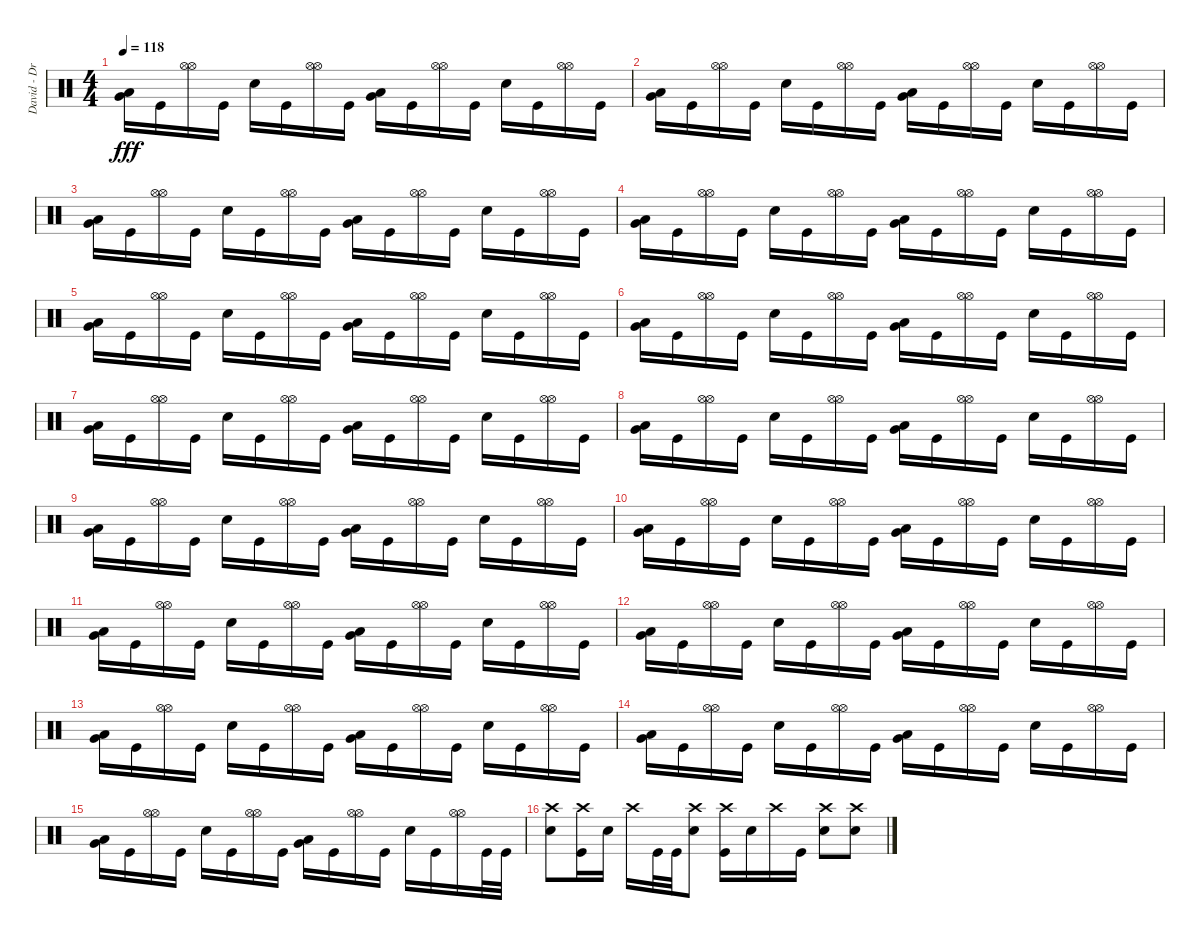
\track ("David - Drums" "David - Dr") {instrument percussion}
\staff {score}
\articulation defaults
\ts (4 4)
\tempo 118
\clef neutral
\ks c
("Low Floor Tom (hit)" "Very Low Tom (hit)").16{dy fff} "Kick (hit)".16 ("Hi-Hat (open)" "Hi-Hat (open)").16 "Kick (hit)".16 "Snare (hit) 2".16 "Kick (hit)".16 ("Hi-Hat (open)" "Hi-Hat (open)").16 "Kick (hit)".16 ("Low Floor Tom (hit)" "Very Low Tom (hit)").16 "Kick (hit)".16 ("Hi-Hat (open)" "Hi-Hat (open)").16 "Kick (hit)".16 "Snare (hit) 2".16 "Kick (hit)".16 ("Hi-Hat (open)" "Hi-Hat (open)").16 "Kick (hit)".16 |
("Low Floor Tom (hit)" "Very Low Tom (hit)").16 "Kick (hit)".16 ("Hi-Hat (open)" "Hi-Hat (open)").16 "Kick (hit)".16 "Snare (hit) 2".16 "Kick (hit)".16 ("Hi-Hat (open)" "Hi-Hat (open)").16 "Kick (hit)".16 ("Low Floor Tom (hit)" "Very Low Tom (hit)").16 "Kick (hit)".16 ("Hi-Hat (open)" "Hi-Hat (open)").16 "Kick (hit)".16 "Snare (hit) 2".16 "Kick (hit)".16 ("Hi-Hat (open)" "Hi-Hat (open)").16 "Kick (hit)".16 |
("Low Floor Tom (hit)" "Very Low Tom (hit)").16 "Kick (hit)".16 ("Hi-Hat (open)" "Hi-Hat (open)").16 "Kick (hit)".16 "Snare (hit) 2".16 "Kick (hit)".16 ("Hi-Hat (open)" "Hi-Hat (open)").16 "Kick (hit)".16 ("Low Floor Tom (hit)" "Very Low Tom (hit)").16 "Kick (hit)".16 ("Hi-Hat (open)" "Hi-Hat (open)").16 "Kick (hit)".16 "Snare (hit) 2".16 "Kick (hit)".16 ("Hi-Hat (open)" "Hi-Hat (open)").16 "Kick (hit)".16 |
("Low Floor Tom (hit)" "Very Low Tom (hit)").16 "Kick (hit)".16 ("Hi-Hat (open)" "Hi-Hat (open)").16 "Kick (hit)".16 "Snare (hit) 2".16 "Kick (hit)".16 ("Hi-Hat (open)" "Hi-Hat (open)").16 "Kick (hit)".16 ("Low Floor Tom (hit)" "Very Low Tom (hit)").16 "Kick (hit)".16 ("Hi-Hat (open)" "Hi-Hat (open)").16 "Kick (hit)".16 "Snare (hit) 2".16 "Kick (hit)".16 ("Hi-Hat (open)" "Hi-Hat (open)").16 "Kick (hit)".16 |
("Low Floor Tom (hit)" "Very Low Tom (hit)").16 "Kick (hit)".16 ("Hi-Hat (open)" "Hi-Hat (open)").16 "Kick (hit)".16 "Snare (hit) 2".16 "Kick (hit)".16 ("Hi-Hat (open)" "Hi-Hat (open)").16 "Kick (hit)".16 ("Low Floor Tom (hit)" "Very Low Tom (hit)").16 "Kick (hit)".16 ("Hi-Hat (open)" "Hi-Hat (open)").16 "Kick (hit)".16 "Snare (hit) 2".16 "Kick (hit)".16 ("Hi-Hat (open)" "Hi-Hat (open)").16 "Kick (hit)".16 |
("Low Floor Tom (hit)" "Very Low Tom (hit)").16 "Kick (hit)".16 ("Hi-Hat (open)" "Hi-Hat (open)").16 "Kick (hit)".16 "Snare (hit) 2".16 "Kick (hit)".16 ("Hi-Hat (open)" "Hi-Hat (open)").16 "Kick (hit)".16 ("Low Floor Tom (hit)" "Very Low Tom (hit)").16 "Kick (hit)".16 ("Hi-Hat (open)" "Hi-Hat (open)").16 "Kick (hit)".16 "Snare (hit) 2".16 "Kick (hit)".16 ("Hi-Hat (open)" "Hi-Hat (open)").16 "Kick (hit)".16 |
("Low Floor Tom (hit)" "Very Low Tom (hit)").16 "Kick (hit)".16 ("Hi-Hat (open)" "Hi-Hat (open)").16 "Kick (hit)".16 "Snare (hit) 2".16 "Kick (hit)".16 ("Hi-Hat (open)" "Hi-Hat (open)").16 "Kick (hit)".16 ("Low Floor Tom (hit)" "Very Low Tom (hit)").16 "Kick (hit)".16 ("Hi-Hat (open)" "Hi-Hat (open)").16 "Kick (hit)".16 "Snare (hit) 2".16 "Kick (hit)".16 ("Hi-Hat (open)" "Hi-Hat (open)").16 "Kick (hit)".16 |
("Low Floor Tom (hit)" "Very Low Tom (hit)").16 "Kick (hit)".16 ("Hi-Hat (open)" "Hi-Hat (open)").16 "Kick (hit)".16 "Snare (hit) 2".16 "Kick (hit)".16 ("Hi-Hat (open)" "Hi-Hat (open)").16 "Kick (hit)".16 ("Low Floor Tom (hit)" "Very Low Tom (hit)").16 "Kick (hit)".16 ("Hi-Hat (open)" "Hi-Hat (open)").16 "Kick (hit)".16 "Snare (hit) 2".16 "Kick (hit)".16 ("Hi-Hat (open)" "Hi-Hat (open)").16 "Kick (hit)".16 |
("Low Floor Tom (hit)" "Very Low Tom (hit)").16 "Kick (hit)".16 ("Hi-Hat (open)" "Hi-Hat (open)").16 "Kick (hit)".16 "Snare (hit) 2".16 "Kick (hit)".16 ("Hi-Hat (open)" "Hi-Hat (open)").16 "Kick (hit)".16 ("Low Floor Tom (hit)" "Very Low Tom (hit)").16 "Kick (hit)".16 ("Hi-Hat (open)" "Hi-Hat (open)").16 "Kick (hit)".16 "Snare (hit) 2".16 "Kick (hit)".16 ("Hi-Hat (open)" "Hi-Hat (open)").16 "Kick (hit)".16 |
("Low Floor Tom (hit)" "Very Low Tom (hit)").16 "Kick (hit)".16 ("Hi-Hat (open)" "Hi-Hat (open)").16 "Kick (hit)".16 "Snare (hit) 2".16 "Kick (hit)".16 ("Hi-Hat (open)" "Hi-Hat (open)").16 "Kick (hit)".16 ("Low Floor Tom (hit)" "Very Low Tom (hit)").16 "Kick (hit)".16 ("Hi-Hat (open)" "Hi-Hat (open)").16 "Kick (hit)".16 "Snare (hit) 2".16 "Kick (hit)".16 ("Hi-Hat (open)" "Hi-Hat (open)").16 "Kick (hit)".16 |
("Low Floor Tom (hit)" "Very Low Tom (hit)").16 "Kick (hit)".16 ("Hi-Hat (open)" "Hi-Hat (open)").16 "Kick (hit)".16 "Snare (hit) 2".16 "Kick (hit)".16 ("Hi-Hat (open)" "Hi-Hat (open)").16 "Kick (hit)".16 ("Low Floor Tom (hit)" "Very Low Tom (hit)").16 "Kick (hit)".16 ("Hi-Hat (open)" "Hi-Hat (open)").16 "Kick (hit)".16 "Snare (hit) 2".16 "Kick (hit)".16 ("Hi-Hat (open)" "Hi-Hat (open)").16 "Kick (hit)".16 |
("Low Floor Tom (hit)" "Very Low Tom (hit)").16 "Kick (hit)".16 ("Hi-Hat (open)" "Hi-Hat (open)").16 "Kick (hit)".16 "Snare (hit) 2".16 "Kick (hit)".16 ("Hi-Hat (open)" "Hi-Hat (open)").16 "Kick (hit)".16 ("Low Floor Tom (hit)" "Very Low Tom (hit)").16 "Kick (hit)".16 ("Hi-Hat (open)" "Hi-Hat (open)").16 "Kick (hit)".16 "Snare (hit) 2".16 "Kick (hit)".16 ("Hi-Hat (open)" "Hi-Hat (open)").16 "Kick (hit)".16 |
("Low Floor Tom (hit)" "Very Low Tom (hit)").16 "Kick (hit)".16 ("Hi-Hat (open)" "Hi-Hat (open)").16 "Kick (hit)".16 "Snare (hit) 2".16 "Kick (hit)".16 ("Hi-Hat (open)" "Hi-Hat (open)").16 "Kick (hit)".16 ("Low Floor Tom (hit)" "Very Low Tom (hit)").16 "Kick (hit)".16 ("Hi-Hat (open)" "Hi-Hat (open)").16 "Kick (hit)".16 "Snare (hit) 2".16 "Kick (hit)".16 ("Hi-Hat (open)" "Hi-Hat (open)").16 "Kick (hit)".16 |
("Low Floor Tom (hit)" "Very Low Tom (hit)").16 "Kick (hit)".16 ("Hi-Hat (open)" "Hi-Hat (open)").16 "Kick (hit)".16 "Snare (hit) 2".16 "Kick (hit)".16 ("Hi-Hat (open)" "Hi-Hat (open)").16 "Kick (hit)".16 ("Low Floor Tom (hit)" "Very Low Tom (hit)").16 "Kick (hit)".16 ("Hi-Hat (open)" "Hi-Hat (open)").16 "Kick (hit)".16 "Snare (hit) 2".16 "Kick (hit)".16 ("Hi-Hat (open)" "Hi-Hat (open)").16 "Kick (hit)".16 |
("Low Floor Tom (hit)" "Very Low Tom (hit)").16 "Kick (hit)".16 ("Hi-Hat (open)" "Hi-Hat (open)").16 "Kick (hit)".16 "Snare (hit) 2".16 "Kick (hit)".16 ("Hi-Hat (open)" "Hi-Hat (open)").16 "Kick (hit)".16 ("Low Floor Tom (hit)" "Very Low Tom (hit)").16 "Kick (hit)".16 ("Hi-Hat (open)" "Hi-Hat (open)").16 "Kick (hit)".16 "Snare (hit) 2".16 "Kick (hit)".16 ("Hi-Hat (open)" "Hi-Hat (open)").16 "Kick (hit)".32 "Kick (hit)".32 |
("Crash high (hit)" "Snare (hit) 2").8 ("Crash high (hit)" "Kick (hit)").16 "Snare (hit) 2".16 "Crash high (hit)".16 "Kick (hit)".32 "Kick (hit)".32 ("Crash high (hit)" "Snare (hit) 2").8 ("Crash high (hit)" "Kick (hit)").16 "Snare (hit) 2".16 "Crash high (hit)".16 "Kick (hit)".16 ("Crash high (hit)" "Snare (hit) 2").8 ("Crash high (hit)" "Snare (hit) 2").8
